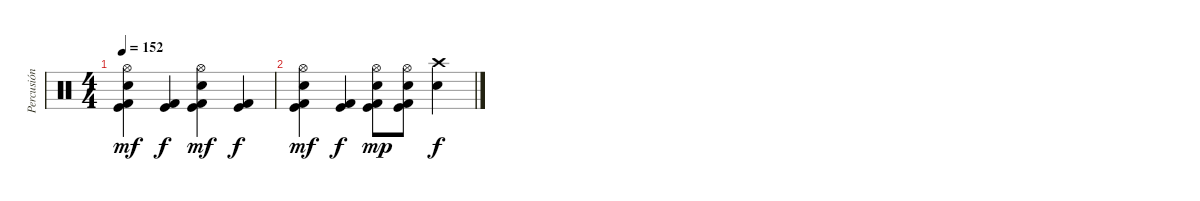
\track ("Percusión" "Percusión") {instrument percussion}
\staff {score}
\articulation defaults
\ts (4 4)
\tempo 152
\clef neutral
\ks c
("Kick (hit)" "Kick (hit) 2" "Electric Snare (hit)" "Hi-Hat (open)").4{dy mf} ("Kick (hit)" "Kick (hit) 2").4{dy f} ("Kick (hit)" "Kick (hit) 2" "Electric Snare (hit)" "Hi-Hat (open)").4{dy mf} ("Kick (hit)" "Kick (hit) 2").4{dy f} |
("Kick (hit)" "Kick (hit) 2" "Electric Snare (hit)" "Hi-Hat (open)").4{dy mf} ("Kick (hit)" "Kick (hit) 2").4{dy f} ("Kick (hit)" "Kick (hit) 2" "Electric Snare (hit)" "Hi-Hat (open)").8{dy mp} ("Kick (hit)" "Kick (hit) 2" "Electric Snare (hit)" "Hi-Hat (open)").8 ("Electric Snare (hit)" "Crash high (hit)").4{dy f}
